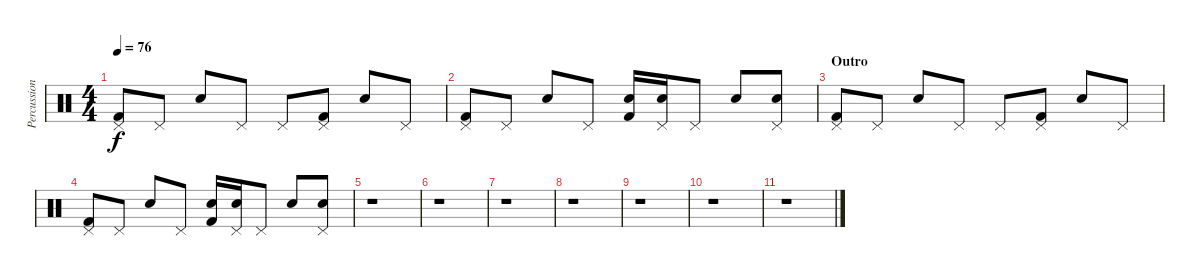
\track ("Percussions" "Percussion") {instrument percussion}
\staff {score}
\articulation defaults
\ts (4 4)
\tempo 76
\clef neutral
\ks c
("Pedal Hi-Hat (hit)" "Kick (hit) 2").8{dy f} "Pedal Hi-Hat (hit)".8 "Snare (hit) 2".8 "Pedal Hi-Hat (hit)".8 "Pedal Hi-Hat (hit)".8 ("Pedal Hi-Hat (hit)" "Kick (hit) 2").8 "Snare (hit) 2".8 "Pedal Hi-Hat (hit)".8 |
("Pedal Hi-Hat (hit)" "Kick (hit) 2").8 "Pedal Hi-Hat (hit)".8 "Snare (hit) 2".8 "Pedal Hi-Hat (hit)".8 ("Snare (hit) 2" "Kick (hit) 2").16 ("Snare (hit) 2" "Pedal Hi-Hat (hit)").16 "Pedal Hi-Hat (hit)".8 "Snare (hit) 2".8 ("Snare (hit) 2" "Pedal Hi-Hat (hit)").8 |
\section ("" "Outro")
("Pedal Hi-Hat (hit)" "Kick (hit) 2").8 "Pedal Hi-Hat (hit)".8 "Snare (hit) 2".8 "Pedal Hi-Hat (hit)".8 "Pedal Hi-Hat (hit)".8 ("Pedal Hi-Hat (hit)" "Kick (hit) 2").8 "Snare (hit) 2".8 "Pedal Hi-Hat (hit)".8 |
("Pedal Hi-Hat (hit)" "Kick (hit) 2").8 "Pedal Hi-Hat (hit)".8 "Snare (hit) 2".8 "Pedal Hi-Hat (hit)".8 ("Snare (hit) 2" "Kick (hit) 2").16 ("Snare (hit) 2" "Pedal Hi-Hat (hit)").16 "Pedal Hi-Hat (hit)".8 "Snare (hit) 2".8 ("Snare (hit) 2" "Pedal Hi-Hat (hit)").8 |
r.1 |
r.1 |
r.1 |
r.1 |
r.1 |
r.1 |
r.1
